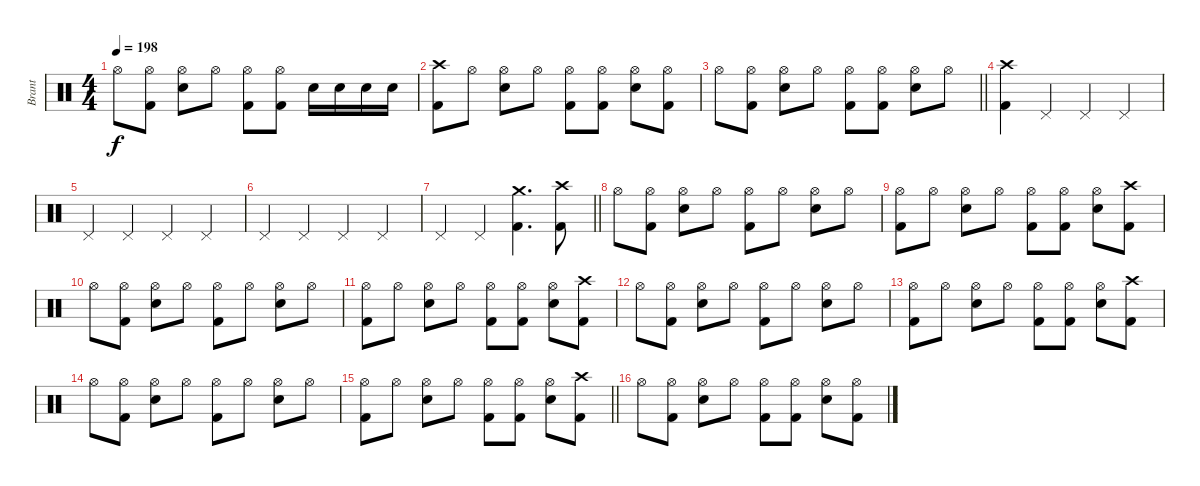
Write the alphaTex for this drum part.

\track ("Brant" "Brant") {instrument percussion}
\staff {score}
\articulation defaults
\ts (4 4)
\tempo 198
\clef neutral
\ks c "Hi-Hat (open)".8{dy f}
("Hi-Hat (open)" "Kick (hit) 2").8 ("Hi-Hat (open)" "Electric Snare (hit)").8 "Hi-Hat (open)".8 ("Hi-Hat (open)" "Kick (hit) 2").8 ("Hi-Hat (open)" "Kick (hit) 2").8 "Electric Snare (hit)".16 "Electric Snare (hit)".16 "Electric Snare (hit)".16 "Electric Snare (hit)".16 |
("Crash high (hit)" "Kick (hit) 2").8 "Hi-Hat (open)".8 ("Hi-Hat (open)" "Electric Snare (hit)").8 "Hi-Hat (open)".8 ("Hi-Hat (open)" "Kick (hit) 2").8 ("Hi-Hat (open)" "Kick (hit) 2").8 ("Hi-Hat (open)" "Electric Snare (hit)").8 ("Hi-Hat (open)" "Kick (hit) 2").8 |
\barLineRight lightlight "Hi-Hat (open)".8
("Hi-Hat (open)" "Kick (hit) 2").8 ("Hi-Hat (open)" "Electric Snare (hit)").8 "Hi-Hat (open)".8 ("Hi-Hat (open)" "Kick (hit) 2").8 ("Hi-Hat (open)" "Kick (hit) 2").8 ("Hi-Hat (open)" "Electric Snare (hit)").8 "Hi-Hat (open)".8 |
\section ("" "")
("Crash high (hit)" "Kick (hit) 2").4 "Pedal Hi-Hat (hit)".4 "Pedal Hi-Hat (hit)".4 "Pedal Hi-Hat (hit)".4 |
"Pedal Hi-Hat (hit)".4 "Pedal Hi-Hat (hit)".4 "Pedal Hi-Hat (hit)".4 "Pedal Hi-Hat (hit)".4 |
"Pedal Hi-Hat (hit)".4 "Pedal Hi-Hat (hit)".4 "Pedal Hi-Hat (hit)".4 "Pedal Hi-Hat (hit)".4 |
\barLineRight lightlight "Pedal Hi-Hat (hit)".4 "Pedal Hi-Hat (hit)".4
("Crash medium (hit)" "Kick (hit) 2").4{d} ("Crash high (hit)" "Kick (hit) 2").8 |
\section ("" "")
"Hi-Hat (open)".8 ("Hi-Hat (open)" "Kick (hit) 2").8 ("Hi-Hat (open)" "Electric Snare (hit)").8 "Hi-Hat (open)".8 ("Hi-Hat (open)" "Kick (hit) 2").8 "Hi-Hat (open)".8 ("Hi-Hat (open)" "Electric Snare (hit)").8 "Hi-Hat (open)".8 |
("Hi-Hat (open)" "Kick (hit) 2").8 "Hi-Hat (open)".8 ("Hi-Hat (open)" "Electric Snare (hit)").8 "Hi-Hat (open)".8 ("Hi-Hat (open)" "Kick (hit) 2").8 ("Hi-Hat (open)" "Kick (hit) 2").8 ("Hi-Hat (open)" "Electric Snare (hit)").8 ("Crash high (hit)" "Kick (hit) 2").8 |
"Hi-Hat (open)".8 ("Hi-Hat (open)" "Kick (hit) 2").8 ("Hi-Hat (open)" "Electric Snare (hit)").8 "Hi-Hat (open)".8 ("Hi-Hat (open)" "Kick (hit) 2").8 "Hi-Hat (open)".8 ("Hi-Hat (open)" "Electric Snare (hit)").8 "Hi-Hat (open)".8 |
("Hi-Hat (open)" "Kick (hit) 2").8 "Hi-Hat (open)".8 ("Hi-Hat (open)" "Electric Snare (hit)").8 "Hi-Hat (open)".8 ("Hi-Hat (open)" "Kick (hit) 2").8 ("Hi-Hat (open)" "Kick (hit) 2").8 ("Hi-Hat (open)" "Electric Snare (hit)").8 ("Crash high (hit)" "Kick (hit) 2").8 |
"Hi-Hat (open)".8 ("Hi-Hat (open)" "Kick (hit) 2").8 ("Hi-Hat (open)" "Electric Snare (hit)").8 "Hi-Hat (open)".8 ("Hi-Hat (open)" "Kick (hit) 2").8 "Hi-Hat (open)".8 ("Hi-Hat (open)" "Electric Snare (hit)").8 "Hi-Hat (open)".8 |
("Hi-Hat (open)" "Kick (hit) 2").8 "Hi-Hat (open)".8 ("Hi-Hat (open)" "Electric Snare (hit)").8 "Hi-Hat (open)".8 ("Hi-Hat (open)" "Kick (hit) 2").8 ("Hi-Hat (open)" "Kick (hit) 2").8 ("Hi-Hat (open)" "Electric Snare (hit)").8 ("Crash high (hit)" "Kick (hit) 2").8 |
"Hi-Hat (open)".8 ("Hi-Hat (open)" "Kick (hit) 2").8 ("Hi-Hat (open)" "Electric Snare (hit)").8 "Hi-Hat (open)".8 ("Hi-Hat (open)" "Kick (hit) 2").8 "Hi-Hat (open)".8 ("Hi-Hat (open)" "Electric Snare (hit)").8 "Hi-Hat (open)".8 |
\barLineRight lightlight
("Hi-Hat (open)" "Kick (hit) 2").8 "Hi-Hat (open)".8 ("Hi-Hat (open)" "Electric Snare (hit)").8 "Hi-Hat (open)".8 ("Hi-Hat (open)" "Kick (hit) 2").8 ("Hi-Hat (open)" "Kick (hit) 2").8 ("Hi-Hat (open)" "Electric Snare (hit)").8 ("Crash high (hit)" "Kick (hit) 2").8 |
\section ("" "")
"Hi-Hat (open)".8 ("Hi-Hat (open)" "Kick (hit) 2").8 ("Hi-Hat (open)" "Electric Snare (hit)").8 "Hi-Hat (open)".8 ("Hi-Hat (open)" "Kick (hit) 2").8 ("Hi-Hat (open)" "Kick (hit) 2").8 ("Hi-Hat (open)" "Electric Snare (hit)").8 ("Hi-Hat (open)" "Kick (hit) 2").8
